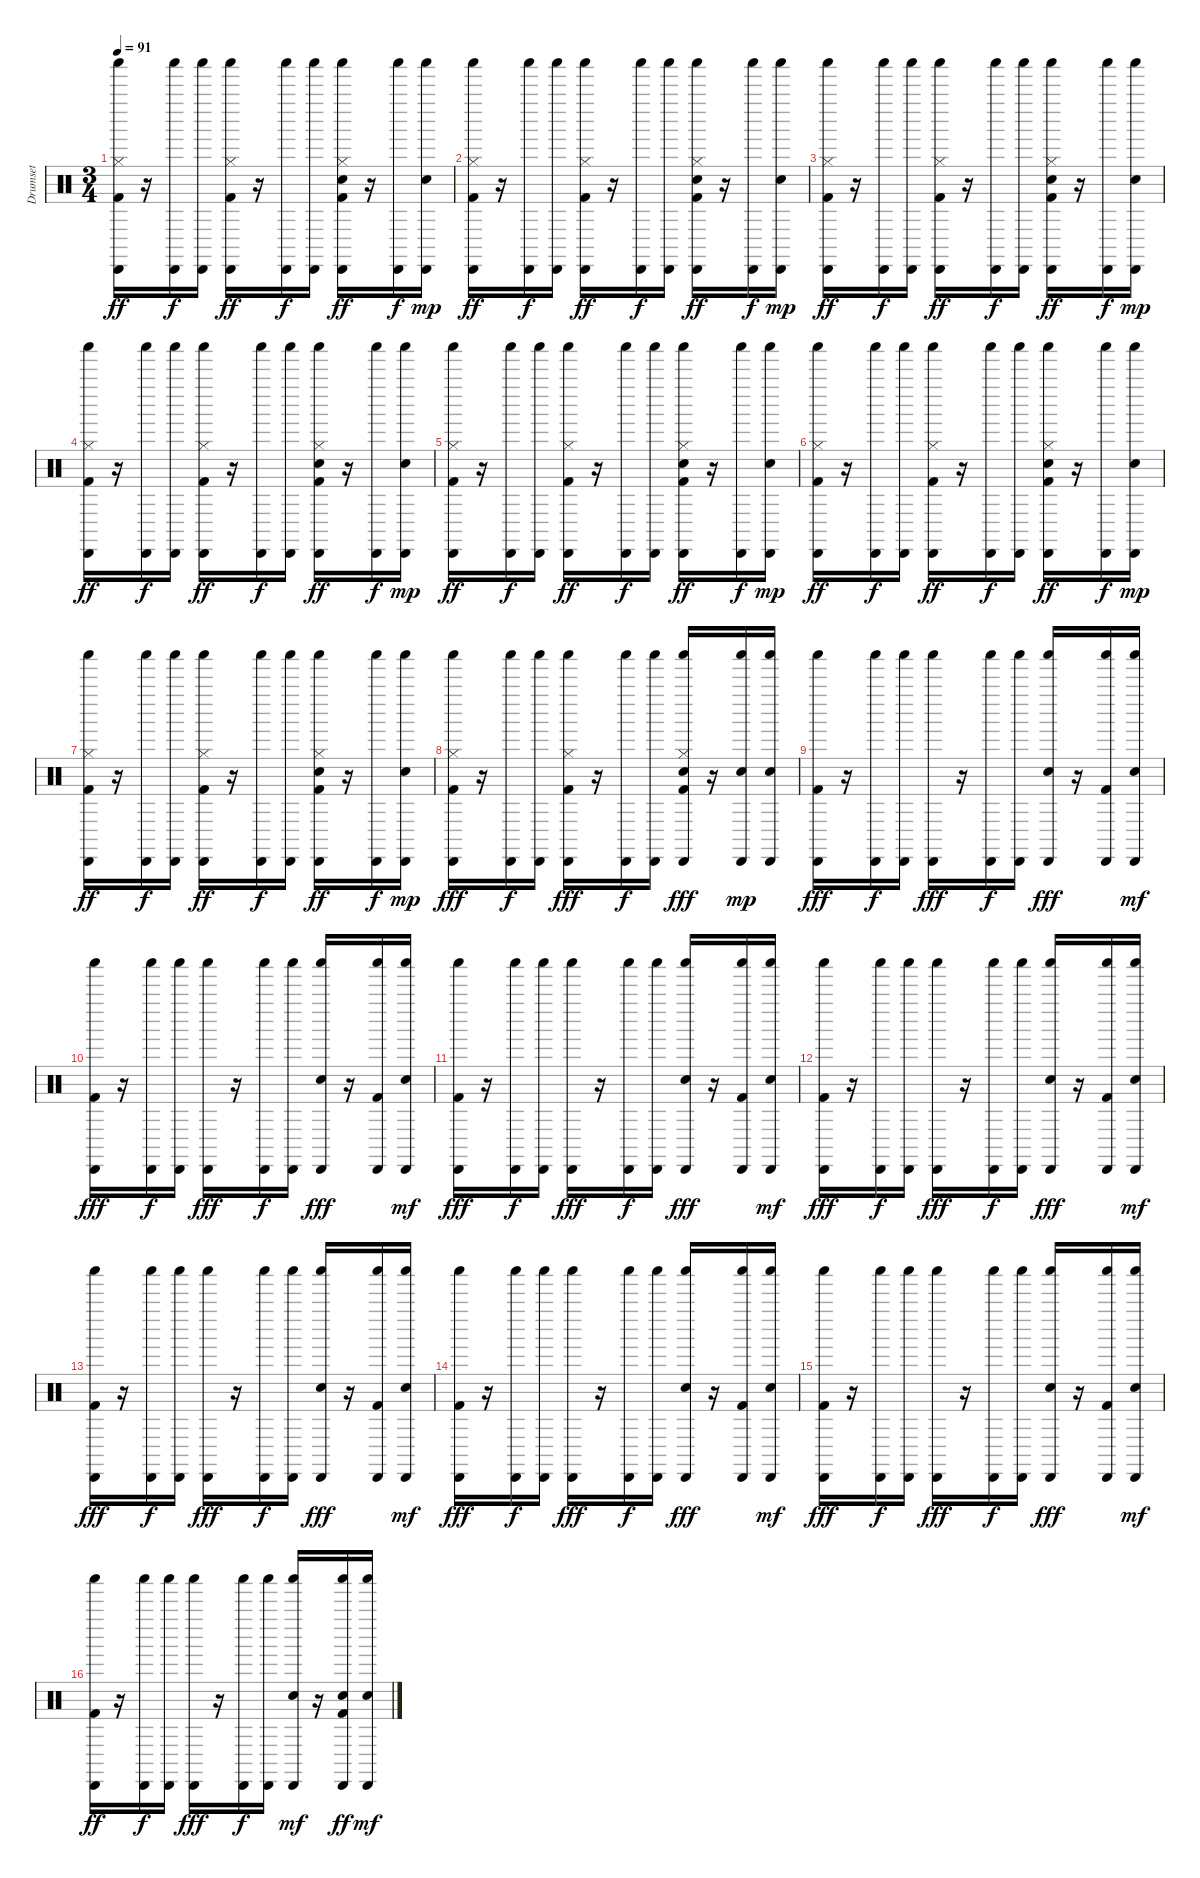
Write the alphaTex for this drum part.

\track ("Drumset" "Drumset") {instrument percussion}
\staff {score}
\articulation defaults
\ts (3 4)
\tempo 91
\clef neutral
\ks c
("Cabasa (hit)" "Shaker (hit)" "Hi-Hat (closed)" "Kick (hit) 2").16{dy ff} r.16 ("Cabasa (hit)" "Shaker (hit)").16{dy f} ("Cabasa (hit)" "Shaker (hit)").16 ("Cabasa (hit)" "Shaker (hit)" "Hi-Hat (closed)" "Kick (hit) 2").16{dy ff} r.16 ("Cabasa (hit)" "Shaker (hit)").16{dy f} ("Cabasa (hit)" "Shaker (hit)").16 ("Cabasa (hit)" "Shaker (hit)" "Hi-Hat (closed)" "Snare (hit) 2" "Kick (hit) 2").16{dy ff} r.16 ("Cabasa (hit)" "Shaker (hit)").16{dy f} ("Cabasa (hit)" "Shaker (hit)" "Snare (hit) 2").16{dy mp} |
("Cabasa (hit)" "Shaker (hit)" "Hi-Hat (closed)" "Kick (hit) 2").16{dy ff} r.16 ("Cabasa (hit)" "Shaker (hit)").16{dy f} ("Cabasa (hit)" "Shaker (hit)").16 ("Cabasa (hit)" "Shaker (hit)" "Hi-Hat (closed)" "Kick (hit) 2").16{dy ff} r.16 ("Cabasa (hit)" "Shaker (hit)").16{dy f} ("Cabasa (hit)" "Shaker (hit)").16 ("Cabasa (hit)" "Shaker (hit)" "Hi-Hat (closed)" "Snare (hit) 2" "Kick (hit) 2").16{dy ff} r.16 ("Cabasa (hit)" "Shaker (hit)").16{dy f} ("Cabasa (hit)" "Shaker (hit)" "Snare (hit) 2").16{dy mp} |
("Cabasa (hit)" "Shaker (hit)" "Hi-Hat (closed)" "Kick (hit) 2").16{dy ff} r.16 ("Cabasa (hit)" "Shaker (hit)").16{dy f} ("Cabasa (hit)" "Shaker (hit)").16 ("Cabasa (hit)" "Shaker (hit)" "Hi-Hat (closed)" "Kick (hit) 2").16{dy ff} r.16 ("Cabasa (hit)" "Shaker (hit)").16{dy f} ("Cabasa (hit)" "Shaker (hit)").16 ("Cabasa (hit)" "Shaker (hit)" "Hi-Hat (closed)" "Snare (hit) 2" "Kick (hit) 2").16{dy ff} r.16 ("Cabasa (hit)" "Shaker (hit)").16{dy f} ("Cabasa (hit)" "Shaker (hit)" "Snare (hit) 2").16{dy mp} |
("Cabasa (hit)" "Shaker (hit)" "Hi-Hat (closed)" "Kick (hit) 2").16{dy ff} r.16 ("Cabasa (hit)" "Shaker (hit)").16{dy f} ("Cabasa (hit)" "Shaker (hit)").16 ("Cabasa (hit)" "Shaker (hit)" "Hi-Hat (closed)" "Kick (hit) 2").16{dy ff} r.16 ("Cabasa (hit)" "Shaker (hit)").16{dy f} ("Cabasa (hit)" "Shaker (hit)").16 ("Cabasa (hit)" "Shaker (hit)" "Hi-Hat (closed)" "Snare (hit) 2" "Kick (hit) 2").16{dy ff} r.16 ("Cabasa (hit)" "Shaker (hit)").16{dy f} ("Cabasa (hit)" "Shaker (hit)" "Snare (hit) 2").16{dy mp} |
("Cabasa (hit)" "Shaker (hit)" "Hi-Hat (closed)" "Kick (hit) 2").16{dy ff} r.16 ("Cabasa (hit)" "Shaker (hit)").16{dy f} ("Cabasa (hit)" "Shaker (hit)").16 ("Cabasa (hit)" "Shaker (hit)" "Hi-Hat (closed)" "Kick (hit) 2").16{dy ff} r.16 ("Cabasa (hit)" "Shaker (hit)").16{dy f} ("Cabasa (hit)" "Shaker (hit)").16 ("Cabasa (hit)" "Shaker (hit)" "Hi-Hat (closed)" "Snare (hit) 2" "Kick (hit) 2").16{dy ff} r.16 ("Cabasa (hit)" "Shaker (hit)").16{dy f} ("Cabasa (hit)" "Shaker (hit)" "Snare (hit) 2").16{dy mp} |
("Cabasa (hit)" "Shaker (hit)" "Hi-Hat (closed)" "Kick (hit) 2").16{dy ff} r.16 ("Cabasa (hit)" "Shaker (hit)").16{dy f} ("Cabasa (hit)" "Shaker (hit)").16 ("Cabasa (hit)" "Shaker (hit)" "Hi-Hat (closed)" "Kick (hit) 2").16{dy ff} r.16 ("Cabasa (hit)" "Shaker (hit)").16{dy f} ("Cabasa (hit)" "Shaker (hit)").16 ("Cabasa (hit)" "Shaker (hit)" "Hi-Hat (closed)" "Snare (hit) 2" "Kick (hit) 2").16{dy ff} r.16 ("Cabasa (hit)" "Shaker (hit)").16{dy f} ("Cabasa (hit)" "Shaker (hit)" "Snare (hit) 2").16{dy mp} |
("Cabasa (hit)" "Shaker (hit)" "Hi-Hat (closed)" "Kick (hit) 2").16{dy ff} r.16 ("Cabasa (hit)" "Shaker (hit)").16{dy f} ("Cabasa (hit)" "Shaker (hit)").16 ("Cabasa (hit)" "Shaker (hit)" "Hi-Hat (closed)" "Kick (hit) 2").16{dy ff} r.16 ("Cabasa (hit)" "Shaker (hit)").16{dy f} ("Cabasa (hit)" "Shaker (hit)").16 ("Cabasa (hit)" "Shaker (hit)" "Hi-Hat (closed)" "Snare (hit) 2" "Kick (hit) 2").16{dy ff} r.16 ("Cabasa (hit)" "Shaker (hit)").16{dy f} ("Cabasa (hit)" "Shaker (hit)" "Snare (hit) 2").16{dy mp} |
("Hi-Hat (closed)" "Kick (hit) 2" "Shaker (hit)" "Cabasa (hit)").16{dy fff} r.16 ("Cabasa (hit)" "Shaker (hit)").16{dy f} ("Cabasa (hit)" "Shaker (hit)").16 ("Hi-Hat (closed)" "Kick (hit) 2" "Shaker (hit)" "Cabasa (hit)").16{dy fff} r.16 ("Cabasa (hit)" "Shaker (hit)").16{dy f} ("Cabasa (hit)" "Shaker (hit)").16 ("Hi-Hat (closed)" "Snare (hit) 2" "Kick (hit) 2" "Shaker (hit)" "Cabasa (hit)").16{dy fff} r.16 ("Shaker (hit)" "Cabasa (hit)" "Snare (hit) 2").16{dy mp} ("Snare (hit) 2" "Cabasa (hit)" "Shaker (hit)").16 |
("Kick (hit) 2" "Shaker (hit)" "Cabasa (hit)").16{dy fff} r.16 ("Cabasa (hit)" "Shaker (hit)").16{dy f} ("Cabasa (hit)" "Shaker (hit)").16 ("Shaker (hit)" "Cabasa (hit)").16{dy fff} r.16 ("Cabasa (hit)" "Shaker (hit)").16{dy f} ("Cabasa (hit)" "Shaker (hit)").16 ("Snare (hit) 2" "Shaker (hit)" "Cabasa (hit)").16{dy fff} r.16 ("Shaker (hit)" "Cabasa (hit)" "Kick (hit) 2").16 ("Snare (hit) 2" "Cabasa (hit)" "Shaker (hit)").16{dy mf} |
("Kick (hit) 2" "Shaker (hit)" "Cabasa (hit)").16{dy fff} r.16 ("Cabasa (hit)" "Shaker (hit)").16{dy f} ("Cabasa (hit)" "Shaker (hit)").16 ("Shaker (hit)" "Cabasa (hit)").16{dy fff} r.16 ("Cabasa (hit)" "Shaker (hit)").16{dy f} ("Cabasa (hit)" "Shaker (hit)").16 ("Snare (hit) 2" "Shaker (hit)" "Cabasa (hit)").16{dy fff} r.16 ("Shaker (hit)" "Cabasa (hit)" "Kick (hit) 2").16 ("Snare (hit) 2" "Cabasa (hit)" "Shaker (hit)").16{dy mf} |
("Kick (hit) 2" "Shaker (hit)" "Cabasa (hit)").16{dy fff} r.16 ("Cabasa (hit)" "Shaker (hit)").16{dy f} ("Cabasa (hit)" "Shaker (hit)").16 ("Shaker (hit)" "Cabasa (hit)").16{dy fff} r.16 ("Cabasa (hit)" "Shaker (hit)").16{dy f} ("Cabasa (hit)" "Shaker (hit)").16 ("Snare (hit) 2" "Shaker (hit)" "Cabasa (hit)").16{dy fff} r.16 ("Shaker (hit)" "Cabasa (hit)" "Kick (hit) 2").16 ("Snare (hit) 2" "Cabasa (hit)" "Shaker (hit)").16{dy mf} |
("Kick (hit) 2" "Shaker (hit)" "Cabasa (hit)").16{dy fff} r.16 ("Cabasa (hit)" "Shaker (hit)").16{dy f} ("Cabasa (hit)" "Shaker (hit)").16 ("Shaker (hit)" "Cabasa (hit)").16{dy fff} r.16 ("Cabasa (hit)" "Shaker (hit)").16{dy f} ("Cabasa (hit)" "Shaker (hit)").16 ("Snare (hit) 2" "Shaker (hit)" "Cabasa (hit)").16{dy fff} r.16 ("Shaker (hit)" "Cabasa (hit)" "Kick (hit) 2").16 ("Snare (hit) 2" "Cabasa (hit)" "Shaker (hit)").16{dy mf} |
("Kick (hit) 2" "Shaker (hit)" "Cabasa (hit)").16{dy fff} r.16 ("Cabasa (hit)" "Shaker (hit)").16{dy f} ("Cabasa (hit)" "Shaker (hit)").16 ("Shaker (hit)" "Cabasa (hit)").16{dy fff} r.16 ("Cabasa (hit)" "Shaker (hit)").16{dy f} ("Cabasa (hit)" "Shaker (hit)").16 ("Snare (hit) 2" "Shaker (hit)" "Cabasa (hit)").16{dy fff} r.16 ("Shaker (hit)" "Cabasa (hit)" "Kick (hit) 2").16 ("Snare (hit) 2" "Cabasa (hit)" "Shaker (hit)").16{dy mf} |
("Kick (hit) 2" "Shaker (hit)" "Cabasa (hit)").16{dy fff} r.16 ("Cabasa (hit)" "Shaker (hit)").16{dy f} ("Cabasa (hit)" "Shaker (hit)").16 ("Shaker (hit)" "Cabasa (hit)").16{dy fff} r.16 ("Cabasa (hit)" "Shaker (hit)").16{dy f} ("Cabasa (hit)" "Shaker (hit)").16 ("Snare (hit) 2" "Shaker (hit)" "Cabasa (hit)").16{dy fff} r.16 ("Shaker (hit)" "Cabasa (hit)" "Kick (hit) 2").16 ("Snare (hit) 2" "Cabasa (hit)" "Shaker (hit)").16{dy mf} |
("Kick (hit) 2" "Shaker (hit)" "Cabasa (hit)").16{dy fff} r.16 ("Cabasa (hit)" "Shaker (hit)").16{dy f} ("Cabasa (hit)" "Shaker (hit)").16 ("Shaker (hit)" "Cabasa (hit)").16{dy fff} r.16 ("Cabasa (hit)" "Shaker (hit)").16{dy f} ("Cabasa (hit)" "Shaker (hit)").16 ("Snare (hit) 2" "Shaker (hit)" "Cabasa (hit)").16{dy fff} r.16 ("Shaker (hit)" "Cabasa (hit)" "Kick (hit) 2").16 ("Snare (hit) 2" "Cabasa (hit)" "Shaker (hit)").16{dy mf} |
("Cabasa (hit)" "Shaker (hit)" "Kick (hit) 2").16{dy ff} r.16 ("Cabasa (hit)" "Shaker (hit)").16{dy f} ("Cabasa (hit)" "Shaker (hit)").16 ("Cabasa (hit)" "Shaker (hit)").16{dy fff} r.16 ("Cabasa (hit)" "Shaker (hit)").16{dy f} ("Cabasa (hit)" "Shaker (hit)").16 ("Cabasa (hit)" "Shaker (hit)" "Snare (hit) 2").16{dy mf} r.16 ("Cabasa (hit)" "Shaker (hit)" "Snare (hit) 2" "Kick (hit) 2").16{dy ff} ("Cabasa (hit)" "Shaker (hit)" "Snare (hit) 2").16{dy mf}
